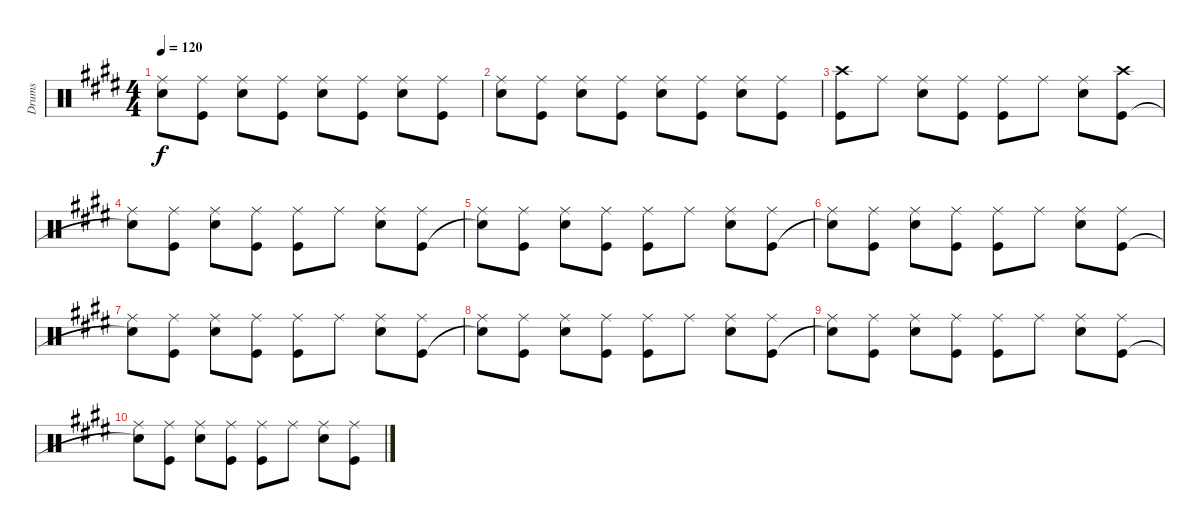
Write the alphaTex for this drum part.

\track ("Drums" "Drums") {instrument percussion}
\staff {score}
\articulation defaults
\ts (4 4)
\tempo 120
\clef neutral
\ks e
("Ride (middle)" "Snare (hit) 2").8{dy f} ("Ride (middle)" "Kick (hit)").8 ("Ride (middle)" "Snare (hit) 2").8 ("Ride (middle)" "Kick (hit)").8 ("Ride (middle)" "Snare (hit) 2").8 ("Ride (middle)" "Kick (hit)").8 ("Ride (middle)" "Snare (hit) 2").8 ("Ride (middle)" "Kick (hit)").8 |
("Ride (middle)" "Snare (hit) 2").8 ("Ride (middle)" "Kick (hit)").8 ("Ride (middle)" "Snare (hit) 2").8 ("Ride (middle)" "Kick (hit)").8 ("Ride (middle)" "Snare (hit) 2").8 ("Ride (middle)" "Kick (hit)").8 ("Ride (middle)" "Snare (hit) 2").8 ("Ride (middle)" "Kick (hit)").8 |
("Crash high (hit)" "Kick (hit)").8 "Ride (middle)".8 ("Ride (middle)" "Snare (hit) 2").8 ("Ride (middle)" "Kick (hit)").8 ("Ride (middle)" "Kick (hit)").8 "Ride (middle)".8 ("Ride (middle)" "Snare (hit) 2").8 ("Crash high (hit)" "Kick (hit)").8 |
("Ride (middle)" "Snare (hit)"{t}).8 ("Ride (middle)" "Kick (hit)").8 ("Ride (middle)" "Snare (hit) 2").8 ("Ride (middle)" "Kick (hit)").8 ("Ride (middle)" "Kick (hit)").8 "Ride (middle)".8 ("Ride (middle)" "Snare (hit) 2").8 ("Ride (middle)" "Kick (hit)").8 |
("Ride (middle)" "Snare (hit)"{t}).8 ("Ride (middle)" "Kick (hit)").8 ("Ride (middle)" "Snare (hit) 2").8 ("Ride (middle)" "Kick (hit)").8 ("Ride (middle)" "Kick (hit)").8 "Ride (middle)".8 ("Ride (middle)" "Snare (hit) 2").8 ("Ride (middle)" "Kick (hit)").8 |
("Ride (middle)" "Snare (hit)"{t}).8 ("Ride (middle)" "Kick (hit)").8 ("Ride (middle)" "Snare (hit) 2").8 ("Ride (middle)" "Kick (hit)").8 ("Ride (middle)" "Kick (hit)").8 "Ride (middle)".8 ("Ride (middle)" "Snare (hit) 2").8 ("Ride (middle)" "Kick (hit)").8 |
("Ride (middle)" "Snare (hit)"{t}).8 ("Ride (middle)" "Kick (hit)").8 ("Ride (middle)" "Snare (hit) 2").8 ("Ride (middle)" "Kick (hit)").8 ("Ride (middle)" "Kick (hit)").8 "Ride (middle)".8 ("Ride (middle)" "Snare (hit) 2").8 ("Ride (middle)" "Kick (hit)").8 |
("Ride (middle)" "Snare (hit)"{t}).8 ("Ride (middle)" "Kick (hit)").8 ("Ride (middle)" "Snare (hit) 2").8 ("Ride (middle)" "Kick (hit)").8 ("Ride (middle)" "Kick (hit)").8 "Ride (middle)".8 ("Ride (middle)" "Snare (hit) 2").8 ("Ride (middle)" "Kick (hit)").8 |
("Ride (middle)" "Snare (hit)"{t}).8 ("Ride (middle)" "Kick (hit)").8 ("Ride (middle)" "Snare (hit) 2").8 ("Ride (middle)" "Kick (hit)").8 ("Ride (middle)" "Kick (hit)").8 "Ride (middle)".8 ("Ride (middle)" "Snare (hit) 2").8 ("Ride (middle)" "Kick (hit)").8 |
("Ride (middle)" "Snare (hit)"{t}).8 ("Ride (middle)" "Kick (hit)").8 ("Ride (middle)" "Snare (hit) 2").8 ("Ride (middle)" "Kick (hit)").8 ("Ride (middle)" "Kick (hit)").8 "Ride (middle)".8 ("Ride (middle)" "Snare (hit) 2").8 ("Ride (middle)" "Kick (hit)").8
